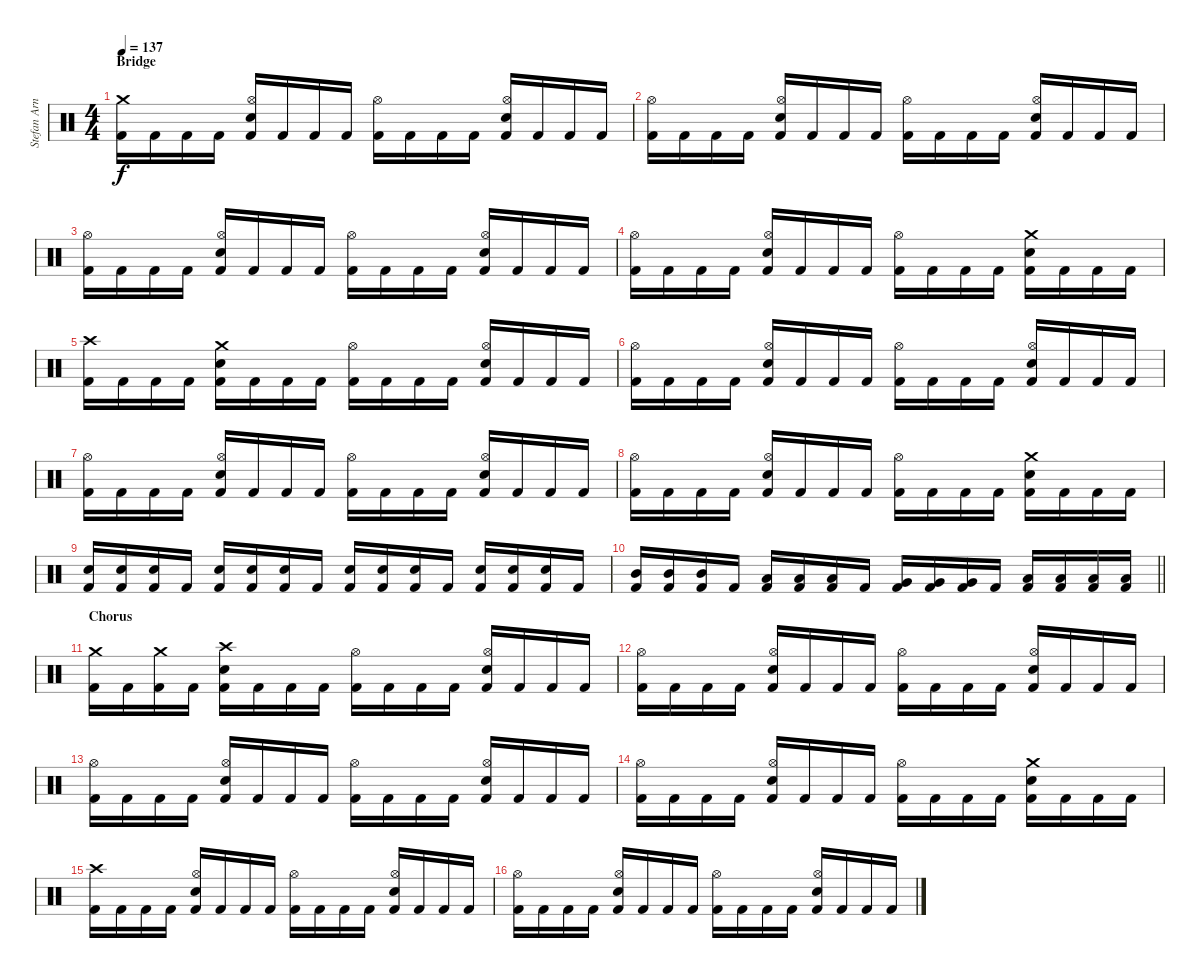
\track ("Stefan Arnold" "Stefan Arn") {instrument percussion}
\staff {score}
\articulation defaults
\ts (4 4)
\section ("" "Bridge")
\tempo 137
\clef neutral
\ks c
("Crash medium (hit)" "Kick (hit) 2").16{dy f} "Kick (hit) 2".16 "Kick (hit) 2".16 "Kick (hit) 2".16 ("Hi-Hat (open)" "Electric Snare (hit)" "Kick (hit) 2").16 "Kick (hit) 2".16 "Kick (hit) 2".16 "Kick (hit) 2".16 ("Hi-Hat (open)" "Kick (hit) 2").16 "Kick (hit) 2".16 "Kick (hit) 2".16 "Kick (hit) 2".16 ("Hi-Hat (open)" "Electric Snare (hit)" "Kick (hit) 2").16 "Kick (hit) 2".16 "Kick (hit) 2".16 "Kick (hit) 2".16 |
("Hi-Hat (open)" "Kick (hit) 2").16 "Kick (hit) 2".16 "Kick (hit) 2".16 "Kick (hit) 2".16 ("Hi-Hat (open)" "Electric Snare (hit)" "Kick (hit) 2").16 "Kick (hit) 2".16 "Kick (hit) 2".16 "Kick (hit) 2".16 ("Hi-Hat (open)" "Kick (hit) 2").16 "Kick (hit) 2".16 "Kick (hit) 2".16 "Kick (hit) 2".16 ("Hi-Hat (open)" "Electric Snare (hit)" "Kick (hit) 2").16 "Kick (hit) 2".16 "Kick (hit) 2".16 "Kick (hit) 2".16 |
("Hi-Hat (open)" "Kick (hit) 2").16 "Kick (hit) 2".16 "Kick (hit) 2".16 "Kick (hit) 2".16 ("Hi-Hat (open)" "Electric Snare (hit)" "Kick (hit) 2").16 "Kick (hit) 2".16 "Kick (hit) 2".16 "Kick (hit) 2".16 ("Hi-Hat (open)" "Kick (hit) 2").16 "Kick (hit) 2".16 "Kick (hit) 2".16 "Kick (hit) 2".16 ("Hi-Hat (open)" "Electric Snare (hit)" "Kick (hit) 2").16 "Kick (hit) 2".16 "Kick (hit) 2".16 "Kick (hit) 2".16 |
("Hi-Hat (open)" "Kick (hit) 2").16 "Kick (hit) 2".16 "Kick (hit) 2".16 "Kick (hit) 2".16 ("Hi-Hat (open)" "Electric Snare (hit)" "Kick (hit) 2").16 "Kick (hit) 2".16 "Kick (hit) 2".16 "Kick (hit) 2".16 ("Hi-Hat (open)" "Kick (hit) 2").16 "Kick (hit) 2".16 "Kick (hit) 2".16 "Kick (hit) 2".16 ("Crash medium (hit)" "Electric Snare (hit)" "Kick (hit) 2").16 "Kick (hit) 2".16 "Kick (hit) 2".16 "Kick (hit) 2".16 |
("Crash high (hit)" "Kick (hit) 2").16 "Kick (hit) 2".16 "Kick (hit) 2".16 "Kick (hit) 2".16 ("Crash medium (hit)" "Electric Snare (hit)" "Kick (hit) 2").16 "Kick (hit) 2".16 "Kick (hit) 2".16 "Kick (hit) 2".16 ("Hi-Hat (open)" "Kick (hit) 2").16 "Kick (hit) 2".16 "Kick (hit) 2".16 "Kick (hit) 2".16 ("Hi-Hat (open)" "Electric Snare (hit)" "Kick (hit) 2").16 "Kick (hit) 2".16 "Kick (hit) 2".16 "Kick (hit) 2".16 |
("Hi-Hat (open)" "Kick (hit) 2").16 "Kick (hit) 2".16 "Kick (hit) 2".16 "Kick (hit) 2".16 ("Hi-Hat (open)" "Electric Snare (hit)" "Kick (hit) 2").16 "Kick (hit) 2".16 "Kick (hit) 2".16 "Kick (hit) 2".16 ("Hi-Hat (open)" "Kick (hit) 2").16 "Kick (hit) 2".16 "Kick (hit) 2".16 "Kick (hit) 2".16 ("Hi-Hat (open)" "Electric Snare (hit)" "Kick (hit) 2").16 "Kick (hit) 2".16 "Kick (hit) 2".16 "Kick (hit) 2".16 |
("Hi-Hat (open)" "Kick (hit) 2").16 "Kick (hit) 2".16 "Kick (hit) 2".16 "Kick (hit) 2".16 ("Hi-Hat (open)" "Electric Snare (hit)" "Kick (hit) 2").16 "Kick (hit) 2".16 "Kick (hit) 2".16 "Kick (hit) 2".16 ("Hi-Hat (open)" "Kick (hit) 2").16 "Kick (hit) 2".16 "Kick (hit) 2".16 "Kick (hit) 2".16 ("Hi-Hat (open)" "Electric Snare (hit)" "Kick (hit) 2").16 "Kick (hit) 2".16 "Kick (hit) 2".16 "Kick (hit) 2".16 |
("Hi-Hat (open)" "Kick (hit) 2").16 "Kick (hit) 2".16 "Kick (hit) 2".16 "Kick (hit) 2".16 ("Hi-Hat (open)" "Electric Snare (hit)" "Kick (hit) 2").16 "Kick (hit) 2".16 "Kick (hit) 2".16 "Kick (hit) 2".16 ("Hi-Hat (open)" "Kick (hit) 2").16 "Kick (hit) 2".16 "Kick (hit) 2".16 "Kick (hit) 2".16 ("Crash medium (hit)" "Electric Snare (hit)" "Kick (hit) 2").16 "Kick (hit) 2".16 "Kick (hit) 2".16 "Kick (hit) 2".16 |
("Electric Snare (hit)" "Kick (hit) 2").16 ("Electric Snare (hit)" "Kick (hit) 2").16 ("Electric Snare (hit)" "Kick (hit) 2").16 "Kick (hit) 2".16 ("Electric Snare (hit)" "Kick (hit) 2").16 ("Electric Snare (hit)" "Kick (hit) 2").16 ("Electric Snare (hit)" "Kick (hit) 2").16 "Kick (hit) 2".16 ("Electric Snare (hit)" "Kick (hit) 2").16 ("Electric Snare (hit)" "Kick (hit) 2").16 ("Electric Snare (hit)" "Kick (hit) 2").16 "Kick (hit) 2".16 ("Electric Snare (hit)" "Kick (hit) 2").16 ("Electric Snare (hit)" "Kick (hit) 2").16 ("Electric Snare (hit)" "Kick (hit) 2").16 "Kick (hit) 2".16 |
\barLineRight lightlight
("Mid Tom (hit)" "Kick (hit) 2").16 ("Mid Tom (hit)" "Kick (hit) 2").16 ("Mid Tom (hit)" "Kick (hit) 2").16 "Kick (hit) 2".16 ("Low Tom (hit)" "Kick (hit) 2").16 ("Low Tom (hit)" "Kick (hit) 2").16 ("Low Tom (hit)" "Kick (hit) 2").16 "Kick (hit) 2".16 ("Very Low Tom (hit)" "Kick (hit) 2").16 ("Very Low Tom (hit)" "Kick (hit) 2").16 ("Very Low Tom (hit)" "Kick (hit) 2").16 "Kick (hit) 2".16 ("Low Floor Tom (hit)" "Kick (hit) 2").16 ("Low Floor Tom (hit)" "Kick (hit) 2").16 ("Low Floor Tom (hit)" "Kick (hit) 2").16 ("Low Floor Tom (hit)" "Kick (hit) 2").16 |
\section ("" "Chorus")
("Crash medium (hit)" "Kick (hit) 2").16 "Kick (hit) 2".16 ("Crash medium (hit)" "Kick (hit) 2").16 "Kick (hit) 2".16 ("Crash high (hit)" "Electric Snare (hit)" "Kick (hit) 2").16 "Kick (hit) 2".16 "Kick (hit) 2".16 "Kick (hit) 2".16 ("Hi-Hat (open)" "Kick (hit) 2").16 "Kick (hit) 2".16 "Kick (hit) 2".16 "Kick (hit) 2".16 ("Hi-Hat (open)" "Electric Snare (hit)" "Kick (hit) 2").16 "Kick (hit) 2".16 "Kick (hit) 2".16 "Kick (hit) 2".16 |
("Hi-Hat (open)" "Kick (hit) 2").16 "Kick (hit) 2".16 "Kick (hit) 2".16 "Kick (hit) 2".16 ("Hi-Hat (open)" "Electric Snare (hit)" "Kick (hit) 2").16 "Kick (hit) 2".16 "Kick (hit) 2".16 "Kick (hit) 2".16 ("Hi-Hat (open)" "Kick (hit) 2").16 "Kick (hit) 2".16 "Kick (hit) 2".16 "Kick (hit) 2".16 ("Hi-Hat (open)" "Electric Snare (hit)" "Kick (hit) 2").16 "Kick (hit) 2".16 "Kick (hit) 2".16 "Kick (hit) 2".16 |
("Hi-Hat (open)" "Kick (hit) 2").16 "Kick (hit) 2".16 "Kick (hit) 2".16 "Kick (hit) 2".16 ("Hi-Hat (open)" "Electric Snare (hit)" "Kick (hit) 2").16 "Kick (hit) 2".16 "Kick (hit) 2".16 "Kick (hit) 2".16 ("Hi-Hat (open)" "Kick (hit) 2").16 "Kick (hit) 2".16 "Kick (hit) 2".16 "Kick (hit) 2".16 ("Hi-Hat (open)" "Electric Snare (hit)" "Kick (hit) 2").16 "Kick (hit) 2".16 "Kick (hit) 2".16 "Kick (hit) 2".16 |
("Hi-Hat (open)" "Kick (hit) 2").16 "Kick (hit) 2".16 "Kick (hit) 2".16 "Kick (hit) 2".16 ("Hi-Hat (open)" "Electric Snare (hit)" "Kick (hit) 2").16 "Kick (hit) 2".16 "Kick (hit) 2".16 "Kick (hit) 2".16 ("Hi-Hat (open)" "Kick (hit) 2").16 "Kick (hit) 2".16 "Kick (hit) 2".16 "Kick (hit) 2".16 ("Crash medium (hit)" "Electric Snare (hit)" "Kick (hit) 2").16 "Kick (hit) 2".16 "Kick (hit) 2".16 "Kick (hit) 2".16 |
("Crash high (hit)" "Kick (hit) 2").16 "Kick (hit) 2".16 "Kick (hit) 2".16 "Kick (hit) 2".16 ("Hi-Hat (open)" "Electric Snare (hit)" "Kick (hit) 2").16 "Kick (hit) 2".16 "Kick (hit) 2".16 "Kick (hit) 2".16 ("Hi-Hat (open)" "Kick (hit) 2").16 "Kick (hit) 2".16 "Kick (hit) 2".16 "Kick (hit) 2".16 ("Hi-Hat (open)" "Electric Snare (hit)" "Kick (hit) 2").16 "Kick (hit) 2".16 "Kick (hit) 2".16 "Kick (hit) 2".16 |
("Hi-Hat (open)" "Kick (hit) 2").16 "Kick (hit) 2".16 "Kick (hit) 2".16 "Kick (hit) 2".16 ("Hi-Hat (open)" "Electric Snare (hit)" "Kick (hit) 2").16 "Kick (hit) 2".16 "Kick (hit) 2".16 "Kick (hit) 2".16 ("Hi-Hat (open)" "Kick (hit) 2").16 "Kick (hit) 2".16 "Kick (hit) 2".16 "Kick (hit) 2".16 ("Hi-Hat (open)" "Electric Snare (hit)" "Kick (hit) 2").16 "Kick (hit) 2".16 "Kick (hit) 2".16 "Kick (hit) 2".16
